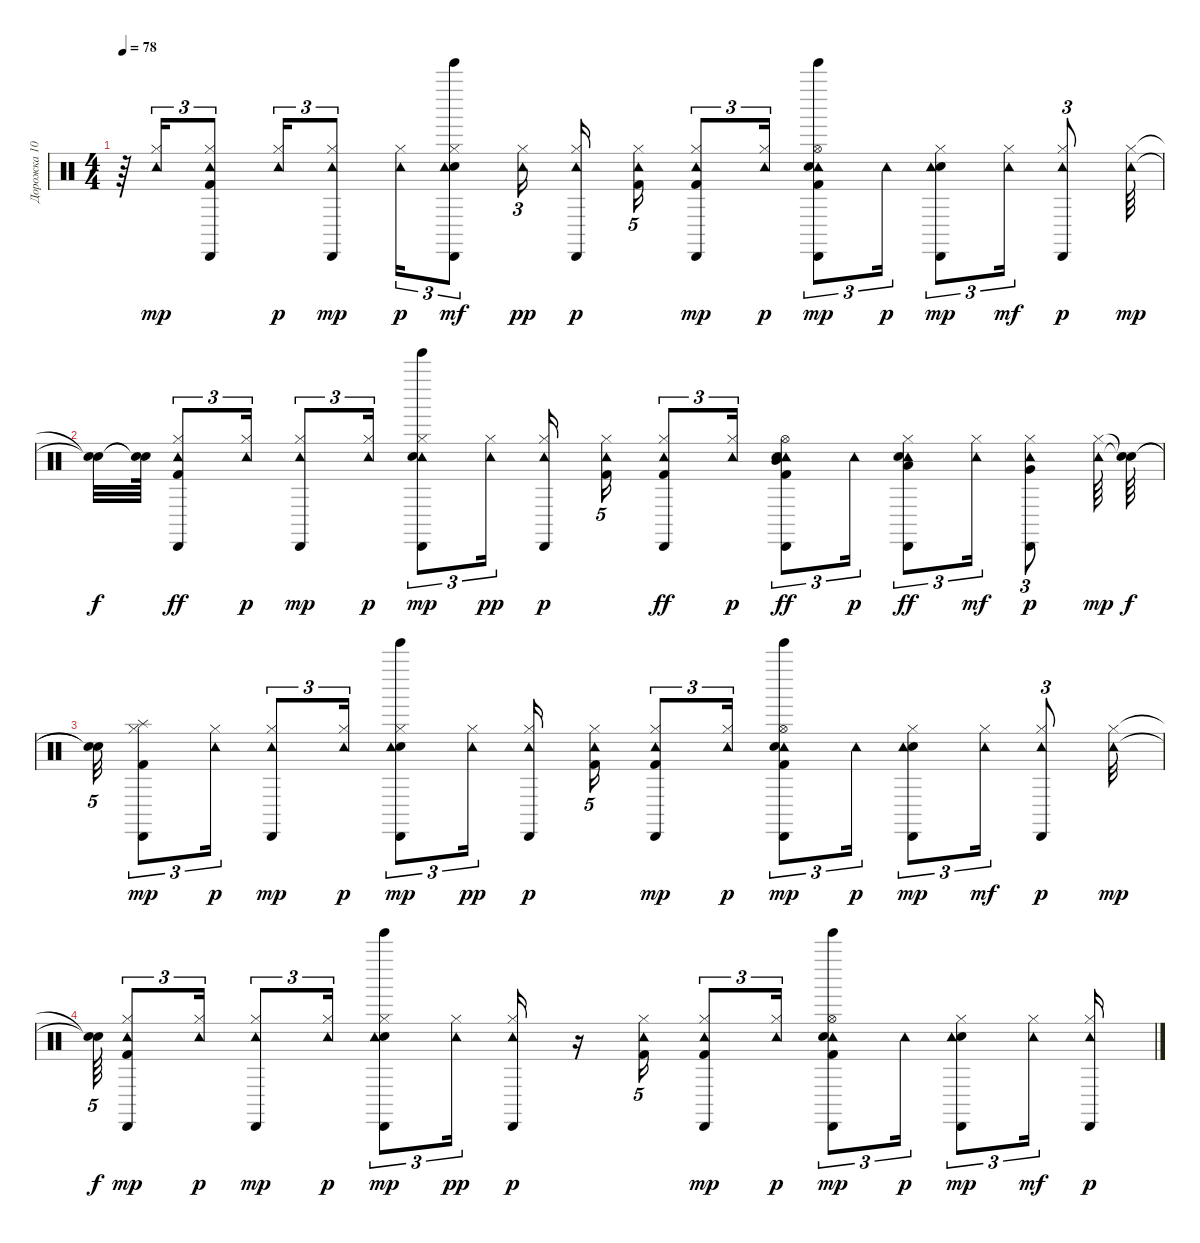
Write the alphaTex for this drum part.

\track ("Дорожка 10" "Дорожка 10") {instrument percussion}
\staff
\articulation defaults
\ts (4 4)
\tempo 78
\clef neutral
\ks c
r.64{dy p} ("Hi-Hat (closed)" "Tambourine (hit)").16{tu (3 2) dy mp} ("Kick (hit) 2" "Hi-Hat (closed)" "Cabasa (hit)" "Tambourine (hit)").8{tu (3 2)} ("Hi-Hat (closed)" "Tambourine (hit)").16{tu (3 2) dy p} ("Hi-Hat (closed)" "Cabasa (hit)" "Tambourine (hit)").8{tu (3 2) dy mp} ("Hi-Hat (closed)" "Tambourine (hit)").16{tu (3 2) dy p} ("Snare (hit) 2" "Hi-Hat (closed)" "Tinkle Bell (hit)" "Cabasa (hit)" "Tambourine (hit)").8{tu (3 2) dy mf} ("Hi-Hat (closed)" "Tambourine (hit)").16{tu (3 2) dy pp beam splitsecondary} ("Hi-Hat (closed)" "Cabasa (hit)" "Tambourine (hit)").16{dy p} ("Kick (hit) 2" "Hi-Hat (closed)" "Tambourine (hit)").16{tu (5 4)} ("Kick (hit) 2" "Hi-Hat (closed)" "Cabasa (hit)" "Tambourine (hit)").8{tu (3 2) dy mp} ("Hi-Hat (closed)" "Tambourine (hit)").16{tu (3 2) dy p} ("Kick (hit) 2" "Hi-Hat (open)" "Cabasa (hit)" "Tambourine (hit)" "Electric Snare (hit)" "Tinkle Bell (hit)").8{tu (3 2) dy mp} "Tambourine (hit)".16{tu (3 2) dy p} ("Snare (hit) 2" "Hi-Hat (closed)" "Cabasa (hit)" "Tambourine (hit)").8{tu (3 2) dy mp} ("Hi-Hat (closed)" "Tambourine (hit)").16{tu (3 2) dy mf} ("Hi-Hat (closed)" "Cabasa (hit)" "Tambourine (hit)").8{tu (3 2) dy p} ("Hi-Hat (closed)" "Tambourine (hit)").64{dy mp} |
("Snare (hit)"{t} "Snare (hit)"{t}).32{dy f} ("Snare (hit)"{t} "Snare (hit)"{t}).64 ("Hi-Hat (closed)" "Cabasa (hit)" "Tambourine (hit)" "Kick (hit) 2").8{tu (3 2) dy ff} ("Hi-Hat (closed)" "Tambourine (hit)").16{tu (3 2) dy p} ("Hi-Hat (closed)" "Cabasa (hit)" "Tambourine (hit)").8{tu (3 2) dy mp} ("Hi-Hat (closed)" "Tambourine (hit)").16{tu (3 2) dy p} ("Hi-Hat (closed)" "Cabasa (hit)" "Tambourine (hit)" "Snare (hit) 2" "Tinkle Bell (hit)").8{tu (3 2) dy mp} ("Hi-Hat (closed)" "Tambourine (hit)").16{tu (3 2) dy pp beam splitsecondary} ("Hi-Hat (closed)" "Cabasa (hit)" "Tambourine (hit)").16{dy p} ("Hi-Hat (closed)" "Tambourine (hit)" "Kick (hit) 2").16{tu (5 4)} ("Hi-Hat (closed)" "Cabasa (hit)" "Tambourine (hit)" "Kick (hit) 2").8{tu (3 2) dy ff} ("Hi-Hat (closed)" "Tambourine (hit)").16{tu (3 2) dy p} ("Mid Tom (hit)" "Cabasa (hit)" "Tambourine (hit)" "Electric Snare (hit)" "Kick (hit) 2" "Hi-Hat (open)").8{tu (3 2) dy ff} "Tambourine (hit)".16{tu (3 2) dy p} ("Low Tom (hit)" "Hi-Hat (closed)" "Cabasa (hit)" "Tambourine (hit)" "Snare (hit) 2").8{tu (3 2) dy ff} ("Hi-Hat (closed)" "Tambourine (hit)").16{tu (3 2) dy mf} ("Very Low Tom (hit)" "Hi-Hat (closed)" "Cabasa (hit)" "Tambourine (hit)").8{tu (3 2) dy p} ("Hi-Hat (closed)" "Tambourine (hit)").64{dy mp} ("Snare (hit)"{t} "Snare (hit)"{t}).64{dy f} |
("Snare (hit)"{t} "Snare (hit)"{t}).32{tu (5 4)} ("Kick (hit) 2" "Splash (hit)" "Cabasa (hit)" "Hi-Hat (closed)").8{tu (3 2) dy mp} ("Tambourine (hit)" "Hi-Hat (closed)").16{tu (3 2) dy p} ("Cabasa (hit)" "Tambourine (hit)" "Hi-Hat (closed)").8{tu (3 2) dy mp} ("Tambourine (hit)" "Hi-Hat (closed)").16{tu (3 2) dy p} ("Snare (hit) 2" "Cabasa (hit)" "Tambourine (hit)" "Hi-Hat (closed)" "Tinkle Bell (hit)").8{tu (3 2) dy mp} ("Tambourine (hit)" "Hi-Hat (closed)").16{tu (3 2) dy pp beam splitsecondary} ("Cabasa (hit)" "Tambourine (hit)" "Hi-Hat (closed)").16{dy p} ("Kick (hit) 2" "Tambourine (hit)" "Hi-Hat (closed)").16{tu (5 4)} ("Kick (hit) 2" "Cabasa (hit)" "Tambourine (hit)" "Hi-Hat (closed)").8{tu (3 2) dy mp} ("Tambourine (hit)" "Hi-Hat (closed)").16{tu (3 2) dy p} ("Kick (hit) 2" "Hi-Hat (open)" "Cabasa (hit)" "Tambourine (hit)" "Electric Snare (hit)" "Tinkle Bell (hit)").8{tu (3 2) dy mp} "Tambourine (hit)".16{tu (3 2) dy p} ("Snare (hit) 2" "Cabasa (hit)" "Tambourine (hit)" "Hi-Hat (closed)").8{tu (3 2) dy mp} ("Tambourine (hit)" "Hi-Hat (closed)").16{tu (3 2) dy mf} ("Cabasa (hit)" "Tambourine (hit)" "Hi-Hat (closed)").8{tu (3 2) dy p} ("Tambourine (hit)" "Hi-Hat (closed)").32{dy mp} |
("Snare (hit)"{t} "Snare (hit)"{t}).64{tu (5 4) dy f} ("Kick (hit) 2" "Hi-Hat (closed)" "Cabasa (hit)" "Tambourine (hit)").8{tu (3 2) dy mp} ("Hi-Hat (closed)" "Tambourine (hit)").16{tu (3 2) dy p} ("Hi-Hat (closed)" "Cabasa (hit)" "Tambourine (hit)").8{tu (3 2) dy mp} ("Hi-Hat (closed)" "Tambourine (hit)").16{tu (3 2) dy p} ("Snare (hit) 2" "Hi-Hat (closed)" "Cabasa (hit)" "Tambourine (hit)" "Tinkle Bell (hit)").8{tu (3 2) dy mp} ("Hi-Hat (closed)" "Tambourine (hit)").16{tu (3 2) dy pp} ("Hi-Hat (closed)" "Cabasa (hit)" "Tambourine (hit)").16{dy p} r.16 ("Kick (hit) 2" "Hi-Hat (closed)" "Tambourine (hit)").16{tu (5 4)} ("Kick (hit) 2" "Hi-Hat (closed)" "Cabasa (hit)" "Tambourine (hit)").8{tu (3 2) dy mp} ("Hi-Hat (closed)" "Tambourine (hit)").16{tu (3 2) dy p} ("Kick (hit) 2" "Hi-Hat (open)" "Cabasa (hit)" "Tambourine (hit)" "Electric Snare (hit)" "Tinkle Bell (hit)").8{tu (3 2) dy mp} "Tambourine (hit)".16{tu (3 2) dy p} ("Snare (hit) 2" "Hi-Hat (closed)" "Cabasa (hit)" "Tambourine (hit)").8{tu (3 2) dy mp} ("Hi-Hat (closed)" "Tambourine (hit)").16{tu (3 2) dy mf} ("Hi-Hat (closed)" "Cabasa (hit)" "Tambourine (hit)").16{dy p}
